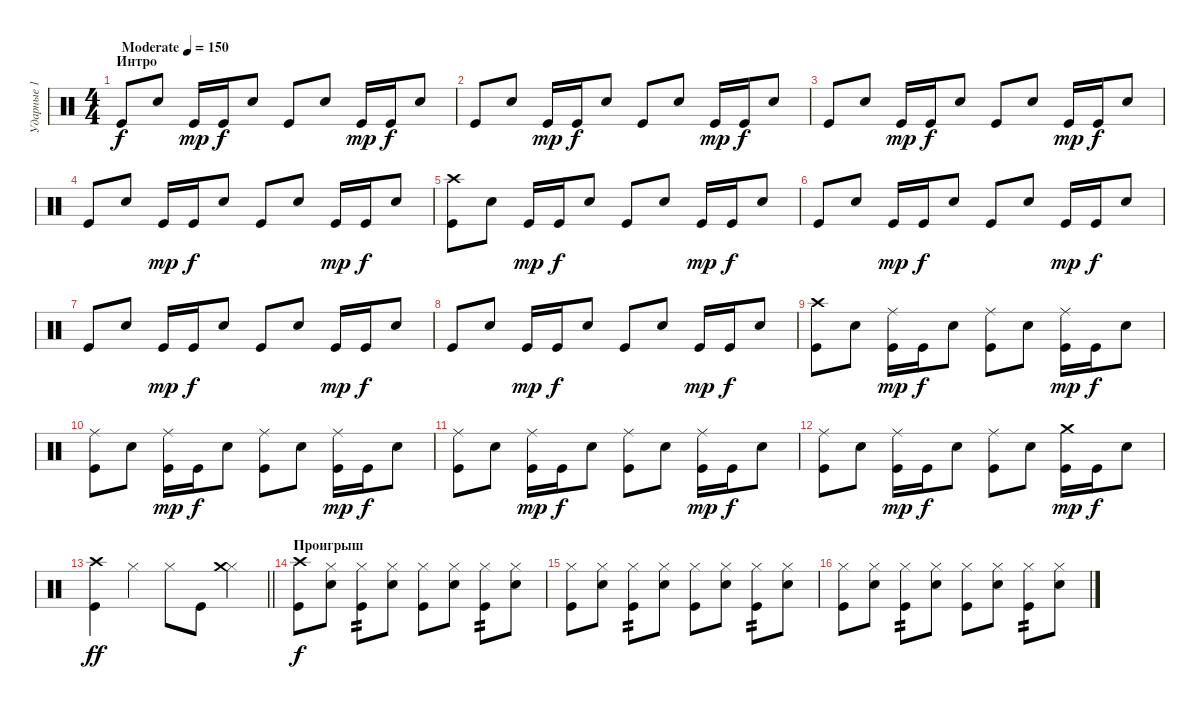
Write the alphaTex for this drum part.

\track ("Ударные 1" "Ударные 1") {instrument percussion}
\staff {score}
\articulation defaults
\ts (4 4)
\section ("" "Интро")
\tempo (150 "Moderate")
\clef neutral
\ks c "Kick (hit)".8{dy f} "Electric Snare (hit)".8 "Kick (hit)".16{dy mp} "Kick (hit)".16{dy f} "Electric Snare (hit)".8 "Kick (hit)".8 "Electric Snare (hit)".8 "Kick (hit)".16{dy mp} "Kick (hit)".16{dy f} "Electric Snare (hit)".8
|
"Kick (hit)".8 "Electric Snare (hit)".8 "Kick (hit)".16{dy mp} "Kick (hit)".16{dy f} "Electric Snare (hit)".8 "Kick (hit)".8 "Electric Snare (hit)".8 "Kick (hit)".16{dy mp} "Kick (hit)".16{dy f} "Electric Snare (hit)".8 |
"Kick (hit)".8 "Electric Snare (hit)".8 "Kick (hit)".16{dy mp} "Kick (hit)".16{dy f} "Electric Snare (hit)".8 "Kick (hit)".8 "Electric Snare (hit)".8 "Kick (hit)".16{dy mp} "Kick (hit)".16{dy f} "Electric Snare (hit)".8 |
"Kick (hit)".8 "Electric Snare (hit)".8 "Kick (hit)".16{dy mp} "Kick (hit)".16{dy f} "Electric Snare (hit)".8 "Kick (hit)".8 "Electric Snare (hit)".8 "Kick (hit)".16{dy mp} "Kick (hit)".16{dy f} "Electric Snare (hit)".8 |
("Crash high (hit)" "Kick (hit)").8 "Electric Snare (hit)".8 "Kick (hit)".16{dy mp} "Kick (hit)".16{dy f} "Electric Snare (hit)".8 "Kick (hit)".8 "Electric Snare (hit)".8 "Kick (hit)".16{dy mp} "Kick (hit)".16{dy f} "Electric Snare (hit)".8 |
"Kick (hit)".8 "Electric Snare (hit)".8 "Kick (hit)".16{dy mp} "Kick (hit)".16{dy f} "Electric Snare (hit)".8 "Kick (hit)".8 "Electric Snare (hit)".8 "Kick (hit)".16{dy mp} "Kick (hit)".16{dy f} "Electric Snare (hit)".8 |
"Kick (hit)".8 "Electric Snare (hit)".8 "Kick (hit)".16{dy mp} "Kick (hit)".16{dy f} "Electric Snare (hit)".8 "Kick (hit)".8 "Electric Snare (hit)".8 "Kick (hit)".16{dy mp} "Kick (hit)".16{dy f} "Electric Snare (hit)".8 |
"Kick (hit)".8 "Electric Snare (hit)".8 "Kick (hit)".16{dy mp} "Kick (hit)".16{dy f} "Electric Snare (hit)".8 "Kick (hit)".8 "Electric Snare (hit)".8 "Kick (hit)".16{dy mp} "Kick (hit)".16{dy f} "Electric Snare (hit)".8 |
("Crash high (hit)" "Kick (hit)").8 "Electric Snare (hit)".8 ("Ride (middle)" "Kick (hit)").16{dy mp} "Kick (hit)".16{dy f} "Electric Snare (hit)".8 ("Ride (middle)" "Kick (hit)").8 "Electric Snare (hit)".8 ("Ride (middle)" "Kick (hit)").16{dy mp} "Kick (hit)".16{dy f} "Electric Snare (hit)".8 |
("Ride (middle)" "Kick (hit)").8 "Electric Snare (hit)".8 ("Ride (middle)" "Kick (hit)").16{dy mp} "Kick (hit)".16{dy f} "Electric Snare (hit)".8 ("Ride (middle)" "Kick (hit)").8 "Electric Snare (hit)".8 ("Ride (middle)" "Kick (hit)").16{dy mp} "Kick (hit)".16{dy f} "Electric Snare (hit)".8 |
("Ride (middle)" "Kick (hit)").8 "Electric Snare (hit)".8 ("Ride (middle)" "Kick (hit)").16{dy mp} "Kick (hit)".16{dy f} "Electric Snare (hit)".8 ("Ride (middle)" "Kick (hit)").8 "Electric Snare (hit)".8 ("Ride (middle)" "Kick (hit)").16{dy mp} "Kick (hit)".16{dy f} "Electric Snare (hit)".8 |
("Ride (middle)" "Kick (hit)").8 "Electric Snare (hit)".8 ("Ride (middle)" "Kick (hit)").16{dy mp} "Kick (hit)".16{dy f} "Electric Snare (hit)".8 ("Ride (middle)" "Kick (hit)").8 "Electric Snare (hit)".8 ("Crash medium (hit)" "Kick (hit)").16{dy mp} "Kick (hit)".16{dy f} "Electric Snare (hit)".8 |
\barLineRight lightlight
("Crash high (hit)" "Kick (hit)").4{dy ff} "Hi-Hat (closed)".4 "Hi-Hat (closed)".8 "Kick (hit)".8 ("Hi-Hat (closed)" "Crash medium (hit)").4 |
\section ("" "Проигрыш")
("Crash high (hit)" "Kick (hit)").8{dy f} ("Hi-Hat (closed)" "Electric Snare (hit)").8 ("Hi-Hat (closed)" "Kick (hit)").8{tp 2} ("Hi-Hat (closed)" "Electric Snare (hit)").8 ("Hi-Hat (closed)" "Kick (hit)").8 ("Hi-Hat (closed)" "Electric Snare (hit)").8 ("Hi-Hat (closed)" "Kick (hit)").8{tp 2} ("Hi-Hat (closed)" "Electric Snare (hit)").8 |
("Hi-Hat (closed)" "Kick (hit)").8 ("Hi-Hat (closed)" "Electric Snare (hit)").8 ("Hi-Hat (closed)" "Kick (hit)").8{tp 2} ("Hi-Hat (closed)" "Electric Snare (hit)").8 ("Hi-Hat (closed)" "Kick (hit)").8 ("Hi-Hat (closed)" "Electric Snare (hit)").8 ("Hi-Hat (closed)" "Kick (hit)").8{tp 2} ("Hi-Hat (closed)" "Electric Snare (hit)").8 |
("Hi-Hat (closed)" "Kick (hit)").8 ("Hi-Hat (closed)" "Electric Snare (hit)").8 ("Hi-Hat (closed)" "Kick (hit)").8{tp 2} ("Hi-Hat (closed)" "Electric Snare (hit)").8 ("Hi-Hat (closed)" "Kick (hit)").8 ("Hi-Hat (closed)" "Electric Snare (hit)").8 ("Hi-Hat (closed)" "Kick (hit)").8{tp 2} ("Hi-Hat (closed)" "Electric Snare (hit)").8
